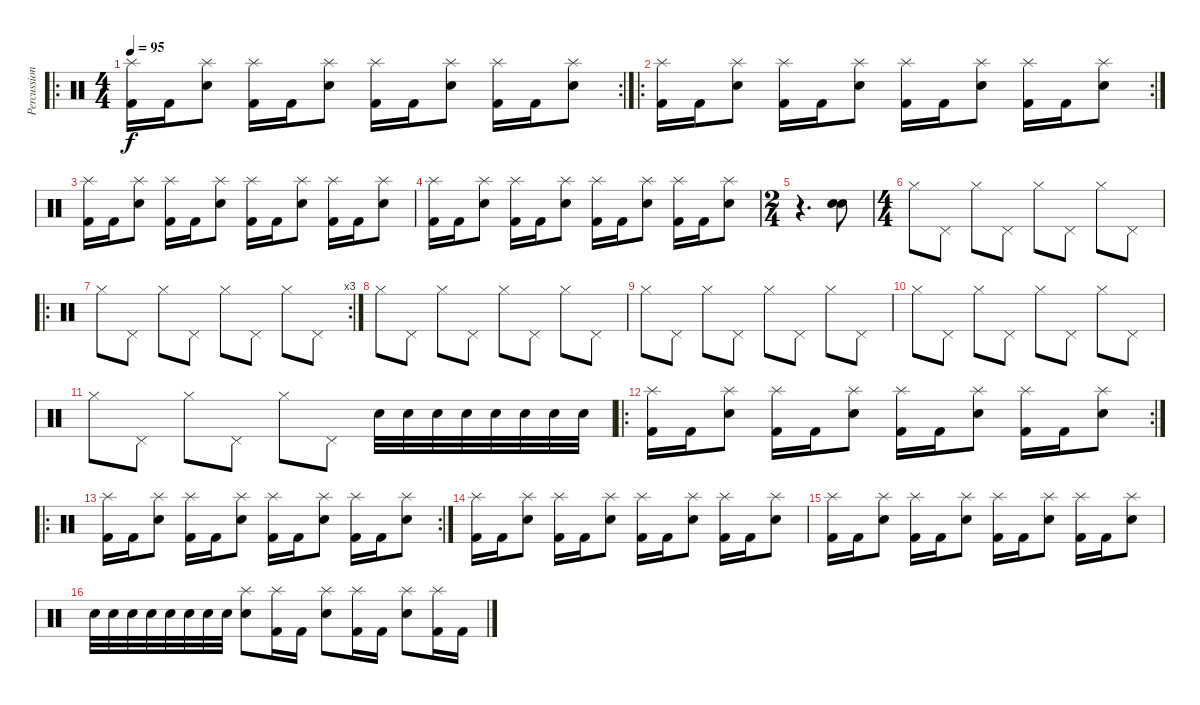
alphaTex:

\track ("Percussions" "Percussion") {instrument percussion}
\staff {score}
\articulation defaults
\ro
\rc 2
\ts (4 4)
\tempo 95
\clef neutral
\ks c
("Kick (hit) 2" "Splash (hit)").16{dy f} "Kick (hit) 2".16 ("Snare (hit) 2" "Splash (hit)").8 ("Kick (hit) 2" "Splash (hit)").16 "Kick (hit) 2".16 ("Snare (hit) 2" "Splash (hit)").8 ("Kick (hit) 2" "Splash (hit)").16 "Kick (hit) 2".16 ("Snare (hit) 2" "Splash (hit)").8 ("Kick (hit) 2" "Splash (hit)").16 "Kick (hit) 2".16 ("Snare (hit) 2" "Splash (hit)").8 |
\ro
\rc 2
("Kick (hit) 2" "Splash (hit)").16 "Kick (hit) 2".16 ("Snare (hit) 2" "Splash (hit)").8 ("Kick (hit) 2" "Splash (hit)").16 "Kick (hit) 2".16 ("Snare (hit) 2" "Splash (hit)").8 ("Kick (hit) 2" "Splash (hit)").16 "Kick (hit) 2".16 ("Snare (hit) 2" "Splash (hit)").8 ("Kick (hit) 2" "Splash (hit)").16 "Kick (hit) 2".16 ("Snare (hit) 2" "Splash (hit)").8 |
("Kick (hit) 2" "Splash (hit)").16 "Kick (hit) 2".16 ("Snare (hit) 2" "Splash (hit)").8 ("Kick (hit) 2" "Splash (hit)").16 "Kick (hit) 2".16 ("Snare (hit) 2" "Splash (hit)").8 ("Kick (hit) 2" "Splash (hit)").16 "Kick (hit) 2".16 ("Snare (hit) 2" "Splash (hit)").8 ("Kick (hit) 2" "Splash (hit)").16 "Kick (hit) 2".16 ("Snare (hit) 2" "Splash (hit)").8 |
("Kick (hit) 2" "Splash (hit)").16 "Kick (hit) 2".16 ("Snare (hit) 2" "Splash (hit)").8 ("Kick (hit) 2" "Splash (hit)").16 "Kick (hit) 2".16 ("Snare (hit) 2" "Splash (hit)").8 ("Kick (hit) 2" "Splash (hit)").16 "Kick (hit) 2".16 ("Snare (hit) 2" "Splash (hit)").8 ("Kick (hit) 2" "Splash (hit)").16 "Kick (hit) 2".16 ("Snare (hit) 2" "Splash (hit)").8 |
\ts (2 4)
r.4{d} ("Snare (hit) 2" "Snare (hit) 2").8 |
\ts (4 4)
"Hi-Hat (closed)".8 "Pedal Hi-Hat (hit)".8 "Hi-Hat (closed)".8 "Pedal Hi-Hat (hit)".8 "Hi-Hat (closed)".8 "Pedal Hi-Hat (hit)".8 "Hi-Hat (closed)".8 "Pedal Hi-Hat (hit)".8 |
\ro
\rc 3 "Hi-Hat (closed)".8 "Pedal Hi-Hat (hit)".8 "Hi-Hat (closed)".8 "Pedal Hi-Hat (hit)".8 "Hi-Hat (closed)".8 "Pedal Hi-Hat (hit)".8 "Hi-Hat (closed)".8 "Pedal Hi-Hat (hit)".8
|
"Hi-Hat (closed)".8 "Pedal Hi-Hat (hit)".8 "Hi-Hat (closed)".8 "Pedal Hi-Hat (hit)".8 "Hi-Hat (closed)".8 "Pedal Hi-Hat (hit)".8 "Hi-Hat (closed)".8 "Pedal Hi-Hat (hit)".8 |
"Hi-Hat (closed)".8 "Pedal Hi-Hat (hit)".8 "Hi-Hat (closed)".8 "Pedal Hi-Hat (hit)".8 "Hi-Hat (closed)".8 "Pedal Hi-Hat (hit)".8 "Hi-Hat (closed)".8 "Pedal Hi-Hat (hit)".8 |
"Hi-Hat (closed)".8 "Pedal Hi-Hat (hit)".8 "Hi-Hat (closed)".8 "Pedal Hi-Hat (hit)".8 "Hi-Hat (closed)".8 "Pedal Hi-Hat (hit)".8 "Hi-Hat (closed)".8 "Pedal Hi-Hat (hit)".8 |
"Hi-Hat (closed)".8 "Pedal Hi-Hat (hit)".8 "Hi-Hat (closed)".8 "Pedal Hi-Hat (hit)".8 "Hi-Hat (closed)".8 "Pedal Hi-Hat (hit)".8 "Snare (hit) 2".32 "Snare (hit) 2".32 "Snare (hit) 2".32 "Snare (hit) 2".32 "Snare (hit) 2".32 "Snare (hit) 2".32 "Snare (hit) 2".32 "Snare (hit) 2".32 |
\ro
\rc 2
("Kick (hit) 2" "Splash (hit)").16 "Kick (hit) 2".16 ("Snare (hit) 2" "Splash (hit)").8 ("Kick (hit) 2" "Splash (hit)").16 "Kick (hit) 2".16 ("Snare (hit) 2" "Splash (hit)").8 ("Kick (hit) 2" "Splash (hit)").16 "Kick (hit) 2".16 ("Snare (hit) 2" "Splash (hit)").8 ("Kick (hit) 2" "Splash (hit)").16 "Kick (hit) 2".16 ("Snare (hit) 2" "Splash (hit)").8 |
\ro
\rc 2
("Kick (hit) 2" "Splash (hit)").16 "Kick (hit) 2".16 ("Snare (hit) 2" "Splash (hit)").8 ("Kick (hit) 2" "Splash (hit)").16 "Kick (hit) 2".16 ("Snare (hit) 2" "Splash (hit)").8 ("Kick (hit) 2" "Splash (hit)").16 "Kick (hit) 2".16 ("Snare (hit) 2" "Splash (hit)").8 ("Kick (hit) 2" "Splash (hit)").16 "Kick (hit) 2".16 ("Snare (hit) 2" "Splash (hit)").8 |
("Kick (hit) 2" "Splash (hit)").16 "Kick (hit) 2".16 ("Snare (hit) 2" "Splash (hit)").8 ("Kick (hit) 2" "Splash (hit)").16 "Kick (hit) 2".16 ("Snare (hit) 2" "Splash (hit)").8 ("Kick (hit) 2" "Splash (hit)").16 "Kick (hit) 2".16 ("Snare (hit) 2" "Splash (hit)").8 ("Kick (hit) 2" "Splash (hit)").16 "Kick (hit) 2".16 ("Snare (hit) 2" "Splash (hit)").8 |
("Kick (hit) 2" "Splash (hit)").16 "Kick (hit) 2".16 ("Snare (hit) 2" "Splash (hit)").8 ("Kick (hit) 2" "Splash (hit)").16 "Kick (hit) 2".16 ("Snare (hit) 2" "Splash (hit)").8 ("Kick (hit) 2" "Splash (hit)").16 "Kick (hit) 2".16 ("Snare (hit) 2" "Splash (hit)").8 ("Kick (hit) 2" "Splash (hit)").16 "Kick (hit) 2".16 ("Snare (hit) 2" "Splash (hit)").8 |
"Snare (hit) 2".32 "Snare (hit) 2".32 "Snare (hit) 2".32 "Snare (hit) 2".32 "Snare (hit) 2".32 "Snare (hit) 2".32 "Snare (hit) 2".32 "Snare (hit) 2".32 ("Snare (hit) 2" "Splash (hit)").8 ("Kick (hit) 2" "Splash (hit)").16 "Kick (hit) 2".16 ("Snare (hit) 2" "Splash (hit)").8 ("Kick (hit) 2" "Splash (hit)").16 "Kick (hit) 2".16 ("Snare (hit) 2" "Splash (hit)").8 ("Kick (hit) 2" "Splash (hit)").16 "Kick (hit) 2".16
